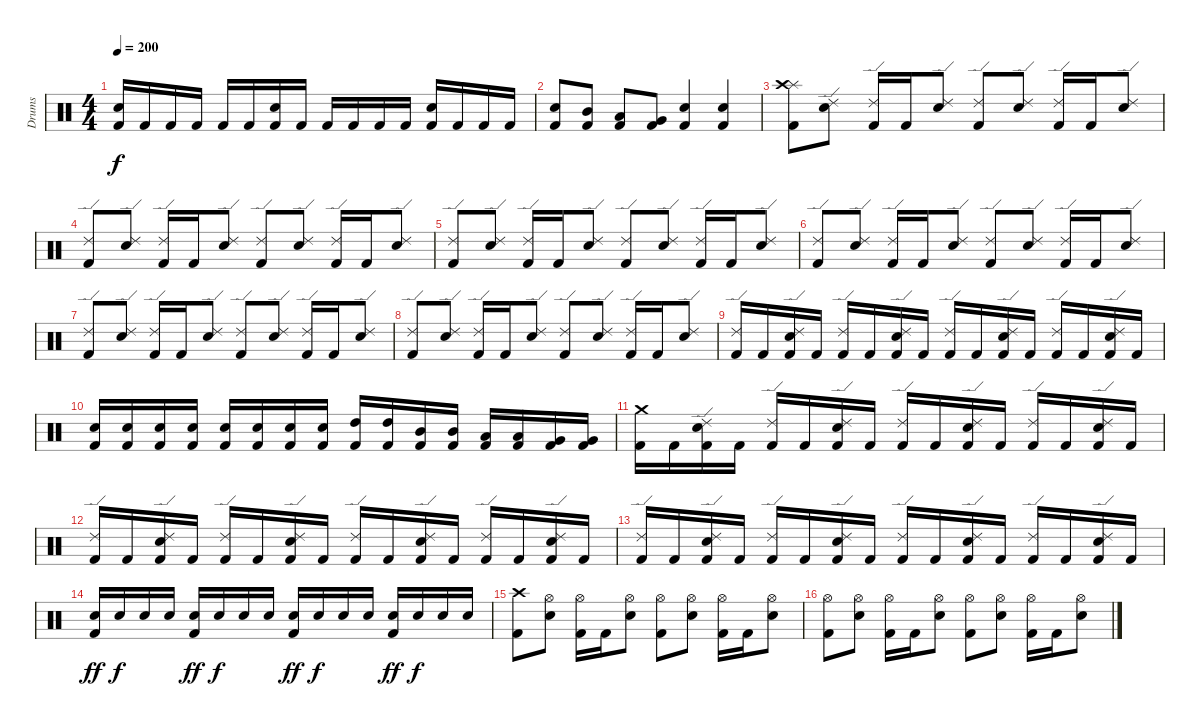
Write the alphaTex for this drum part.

\track ("Drums" "Drums") {instrument percussion}
\staff {score}
\articulation defaults
\ts (4 4)
\tempo 200
\clef neutral
\ks c
("Kick (hit) 2" "Snare (hit) 2").16{dy f} "Kick (hit) 2".16 "Kick (hit) 2".16 "Kick (hit) 2".16 "Kick (hit) 2".16 "Kick (hit) 2".16 ("Kick (hit) 2" "Snare (hit) 2").16 "Kick (hit) 2".16 "Kick (hit) 2".16 "Kick (hit) 2".16 "Kick (hit) 2".16 "Kick (hit) 2".16 ("Kick (hit) 2" "Snare (hit) 2").16 "Kick (hit) 2".16 "Kick (hit) 2".16 "Kick (hit) 2".16 |
("Kick (hit) 2" "Snare (hit) 2").8 ("Kick (hit) 2" "Mid Tom (hit)").8 ("Kick (hit) 2" "Low Tom (hit)").8 ("Kick (hit) 2" "Very Low Tom (hit)").8 ("Kick (hit) 2" "Snare (hit) 2").4 ("Kick (hit) 2" "Snare (hit) 2").4 |
\section ("" "")
("Kick (hit) 2" "Splash (hit)" "Crash high (hit)").8 ("Snare (hit) 2" "Ride (edge) 2").8 ("Kick (hit) 2" "Ride (edge) 2").16 "Kick (hit) 2".16 ("Snare (hit) 2" "Ride (edge) 2").8 ("Kick (hit) 2" "Ride (edge) 2").8 ("Snare (hit) 2" "Ride (edge) 2").8 ("Kick (hit) 2" "Ride (edge) 2").16 "Kick (hit) 2".16 ("Snare (hit) 2" "Ride (edge) 2").8 |
("Kick (hit) 2" "Ride (edge) 2").8 ("Snare (hit) 2" "Ride (edge) 2").8 ("Kick (hit) 2" "Ride (edge) 2").16 "Kick (hit) 2".16 ("Snare (hit) 2" "Ride (edge) 2").8 ("Kick (hit) 2" "Ride (edge) 2").8 ("Snare (hit) 2" "Ride (edge) 2").8 ("Kick (hit) 2" "Ride (edge) 2").16 "Kick (hit) 2".16 ("Snare (hit) 2" "Ride (edge) 2").8 |
("Kick (hit) 2" "Ride (edge) 2").8 ("Snare (hit) 2" "Ride (edge) 2").8 ("Kick (hit) 2" "Ride (edge) 2").16 "Kick (hit) 2".16 ("Snare (hit) 2" "Ride (edge) 2").8 ("Kick (hit) 2" "Ride (edge) 2").8 ("Snare (hit) 2" "Ride (edge) 2").8 ("Kick (hit) 2" "Ride (edge) 2").16 "Kick (hit) 2".16 ("Snare (hit) 2" "Ride (edge) 2").8 |
("Kick (hit) 2" "Ride (edge) 2").8 ("Snare (hit) 2" "Ride (edge) 2").8 ("Kick (hit) 2" "Ride (edge) 2").16 "Kick (hit) 2".16 ("Snare (hit) 2" "Ride (edge) 2").8 ("Kick (hit) 2" "Ride (edge) 2").8 ("Snare (hit) 2" "Ride (edge) 2").8 ("Kick (hit) 2" "Ride (edge) 2").16 "Kick (hit) 2".16 ("Snare (hit) 2" "Ride (edge) 2").8 |
("Kick (hit) 2" "Ride (edge) 2").8 ("Snare (hit) 2" "Ride (edge) 2").8 ("Kick (hit) 2" "Ride (edge) 2").16 "Kick (hit) 2".16 ("Snare (hit) 2" "Ride (edge) 2").8 ("Kick (hit) 2" "Ride (edge) 2").8 ("Snare (hit) 2" "Ride (edge) 2").8 ("Kick (hit) 2" "Ride (edge) 2").16 "Kick (hit) 2".16 ("Snare (hit) 2" "Ride (edge) 2").8 |
("Kick (hit) 2" "Ride (edge) 2").8 ("Snare (hit) 2" "Ride (edge) 2").8 ("Kick (hit) 2" "Ride (edge) 2").16 "Kick (hit) 2".16 ("Snare (hit) 2" "Ride (edge) 2").8 ("Kick (hit) 2" "Ride (edge) 2").8 ("Snare (hit) 2" "Ride (edge) 2").8 ("Kick (hit) 2" "Ride (edge) 2").16 "Kick (hit) 2".16 ("Snare (hit) 2" "Ride (edge) 2").8 |
("Kick (hit) 2" "Ride (edge) 2").16 "Kick (hit) 2".16 ("Kick (hit) 2" "Snare (hit) 2" "Ride (edge) 2").16 "Kick (hit) 2".16 ("Kick (hit) 2" "Ride (edge) 2").16 "Kick (hit) 2".16 ("Kick (hit) 2" "Snare (hit) 2" "Ride (edge) 2").16 "Kick (hit) 2".16 ("Kick (hit) 2" "Ride (edge) 2").16 "Kick (hit) 2".16 ("Kick (hit) 2" "Snare (hit) 2" "Ride (edge) 2").16 "Kick (hit) 2".16 ("Kick (hit) 2" "Ride (edge) 2").16 "Kick (hit) 2".16 ("Kick (hit) 2" "Snare (hit) 2" "Ride (edge) 2").16 "Kick (hit) 2".16 |
("Kick (hit) 2" "Snare (hit) 2").16 ("Kick (hit) 2" "Snare (hit) 2").16 ("Kick (hit) 2" "Snare (hit) 2").16 ("Kick (hit) 2" "Snare (hit) 2").16 ("Kick (hit) 2" "Snare (hit) 2").16 ("Kick (hit) 2" "Snare (hit) 2").16 ("Kick (hit) 2" "Snare (hit) 2").16 ("Kick (hit) 2" "Snare (hit) 2").16 ("Kick (hit) 2" "High Tom (hit)").16 ("Kick (hit) 2" "High Tom (hit)").16 ("Kick (hit) 2" "Mid Tom (hit)").16 ("Kick (hit) 2" "Mid Tom (hit)").16 ("Kick (hit) 2" "Low Tom (hit)").16 ("Kick (hit) 2" "Low Tom (hit)").16 ("Kick (hit) 2" "Very Low Tom (hit)").16 ("Kick (hit) 2" "Very Low Tom (hit)").16 |
("Kick (hit) 2" "Crash medium (hit)").16 "Kick (hit) 2".16 ("Kick (hit) 2" "Snare (hit) 2" "Ride (edge) 2").16 "Kick (hit) 2".16 ("Kick (hit) 2" "Ride (edge) 2").16 "Kick (hit) 2".16 ("Kick (hit) 2" "Snare (hit) 2" "Ride (edge) 2").16 "Kick (hit) 2".16 ("Kick (hit) 2" "Ride (edge) 2").16 "Kick (hit) 2".16 ("Kick (hit) 2" "Snare (hit) 2" "Ride (edge) 2").16 "Kick (hit) 2".16 ("Kick (hit) 2" "Ride (edge) 2").16 "Kick (hit) 2".16 ("Kick (hit) 2" "Snare (hit) 2" "Ride (edge) 2").16 "Kick (hit) 2".16 |
("Kick (hit) 2" "Ride (edge) 2").16 "Kick (hit) 2".16 ("Kick (hit) 2" "Snare (hit) 2" "Ride (edge) 2").16 "Kick (hit) 2".16 ("Kick (hit) 2" "Ride (edge) 2").16 "Kick (hit) 2".16 ("Kick (hit) 2" "Snare (hit) 2" "Ride (edge) 2").16 "Kick (hit) 2".16 ("Kick (hit) 2" "Ride (edge) 2").16 "Kick (hit) 2".16 ("Kick (hit) 2" "Snare (hit) 2" "Ride (edge) 2").16 "Kick (hit) 2".16 ("Kick (hit) 2" "Ride (edge) 2").16 "Kick (hit) 2".16 ("Kick (hit) 2" "Snare (hit) 2" "Ride (edge) 2").16 "Kick (hit) 2".16 |
("Kick (hit) 2" "Ride (edge) 2").16 "Kick (hit) 2".16 ("Kick (hit) 2" "Snare (hit) 2" "Ride (edge) 2").16 "Kick (hit) 2".16 ("Kick (hit) 2" "Ride (edge) 2").16 "Kick (hit) 2".16 ("Kick (hit) 2" "Snare (hit) 2" "Ride (edge) 2").16 "Kick (hit) 2".16 ("Kick (hit) 2" "Ride (edge) 2").16 "Kick (hit) 2".16 ("Kick (hit) 2" "Snare (hit) 2" "Ride (edge) 2").16 "Kick (hit) 2".16 ("Kick (hit) 2" "Ride (edge) 2").16 "Kick (hit) 2".16 ("Kick (hit) 2" "Snare (hit) 2" "Ride (edge) 2").16 "Kick (hit) 2".16 |
("Kick (hit) 2" "Snare (hit) 2").16{dy ff} "Snare (hit) 2".16{dy f} "Snare (hit) 2".16 "Snare (hit) 2".16 ("Kick (hit) 2" "Snare (hit) 2").16{dy ff} "Snare (hit) 2".16{dy f} "Snare (hit) 2".16 "Snare (hit) 2".16 ("Kick (hit) 2" "Snare (hit) 2").16{dy ff} "Snare (hit) 2".16{dy f} "Snare (hit) 2".16 "Snare (hit) 2".16 ("Kick (hit) 2" "Snare (hit) 2").16{dy ff} "Snare (hit) 2".16{dy f} "Snare (hit) 2".16 "Snare (hit) 2".16 |
\section ("" "")
("Kick (hit) 2" "Crash high (hit)").8 ("Snare (hit) 2" "Hi-Hat (open)").8 ("Kick (hit) 2" "Hi-Hat (open)").16 "Kick (hit) 2".16 ("Snare (hit) 2" "Hi-Hat (open)").8 ("Kick (hit) 2" "Hi-Hat (open)").8 ("Snare (hit) 2" "Hi-Hat (open)").8 ("Kick (hit) 2" "Hi-Hat (open)").16 "Kick (hit) 2".16 ("Snare (hit) 2" "Hi-Hat (open)").8 |
("Kick (hit) 2" "Hi-Hat (open)").8 ("Snare (hit) 2" "Hi-Hat (open)").8 ("Kick (hit) 2" "Hi-Hat (open)").16 "Kick (hit) 2".16 ("Snare (hit) 2" "Hi-Hat (open)").8 ("Kick (hit) 2" "Hi-Hat (open)").8 ("Snare (hit) 2" "Hi-Hat (open)").8 ("Kick (hit) 2" "Hi-Hat (open)").16 "Kick (hit) 2".16 ("Snare (hit) 2" "Hi-Hat (open)").8
